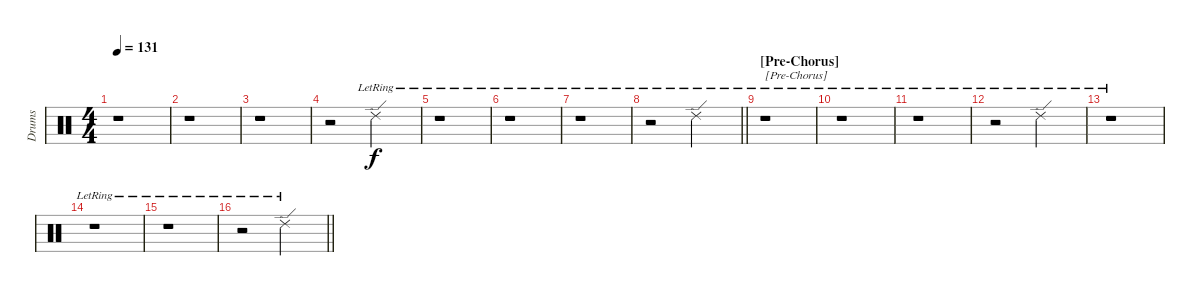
\track ("Drums" "Drums") {instrument percussion}
\staff {score}
\articulation defaults
\ts (4 4)
\tempo 131
\clef neutral
\ks c
r.1{dy f} |
r.1 |
r.1 |
r.2 "Ride (edge) 2"{lr}.2 |
r.1 |
r.1 |
r.1 |
\barLineRight lightlight
r.2 "Ride (edge) 2"{lr}.2 |
\section ("" "[Pre-Chorus]")
r.1{txt "[Pre-Chorus]"} |
r.1 |
r.1 |
r.2 "Ride (edge) 2"{lr}.2 |
r.1 |
r.1 |
r.1 |
\barLineRight lightlight
r.2 "Ride (edge) 2"{lr}.2
